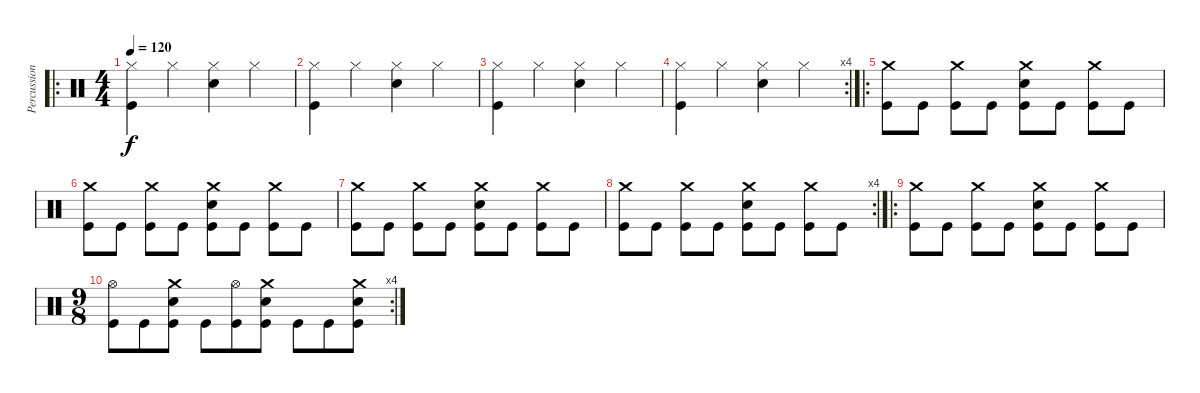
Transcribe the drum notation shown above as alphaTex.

\track ("Percussion" "Percussion") {instrument percussion}
\staff {score}
\articulation defaults
\ro
\ts (4 4)
\tempo 120
\clef neutral
\ks c
("Hi-Hat (closed)" "Kick (hit)").4{dy f} "Hi-Hat (closed)".4 ("Hi-Hat (closed)" "Snare (hit) 2").4 "Hi-Hat (closed)".4 |
("Hi-Hat (closed)" "Kick (hit)").4 "Hi-Hat (closed)".4 ("Hi-Hat (closed)" "Snare (hit) 2").4 "Hi-Hat (closed)".4 |
("Hi-Hat (closed)" "Kick (hit)").4 "Hi-Hat (closed)".4 ("Hi-Hat (closed)" "Snare (hit) 2").4 "Hi-Hat (closed)".4 |
\rc 4
("Hi-Hat (closed)" "Kick (hit)").4 "Hi-Hat (closed)".4 ("Hi-Hat (closed)" "Snare (hit) 2").4 "Hi-Hat (closed)".4 |
\ro
("Crash medium (hit)" "Kick (hit)").8 "Kick (hit)".8 ("Crash medium (hit)" "Kick (hit)").8 "Kick (hit)".8 ("Crash medium (hit)" "Snare (hit) 2" "Kick (hit)").8 "Kick (hit)".8 ("Crash medium (hit)" "Kick (hit)").8 "Kick (hit)".8 |
("Crash medium (hit)" "Kick (hit)").8 "Kick (hit)".8 ("Crash medium (hit)" "Kick (hit)").8 "Kick (hit)".8 ("Crash medium (hit)" "Snare (hit) 2" "Kick (hit)").8 "Kick (hit)".8 ("Crash medium (hit)" "Kick (hit)").8 "Kick (hit)".8 |
("Crash medium (hit)" "Kick (hit)").8 "Kick (hit)".8 ("Crash medium (hit)" "Kick (hit)").8 "Kick (hit)".8 ("Crash medium (hit)" "Snare (hit) 2" "Kick (hit)").8 "Kick (hit)".8 ("Crash medium (hit)" "Kick (hit)").8 "Kick (hit)".8 |
\rc 4
("Crash medium (hit)" "Kick (hit)").8 "Kick (hit)".8 ("Crash medium (hit)" "Kick (hit)").8 "Kick (hit)".8 ("Crash medium (hit)" "Snare (hit) 2" "Kick (hit)").8 "Kick (hit)".8 ("Crash medium (hit)" "Kick (hit)").8 "Kick (hit)".8 |
\ro
("Crash medium (hit)" "Kick (hit)").8 "Kick (hit)".8 ("Crash medium (hit)" "Kick (hit)").8 "Kick (hit)".8 ("Crash medium (hit)" "Snare (hit) 2" "Kick (hit)").8 "Kick (hit)".8 ("Crash medium (hit)" "Kick (hit)").8 "Kick (hit)".8 |
\rc 4
\ts (9 8)
("Hi-Hat (open)" "Kick (hit)").8 "Kick (hit)".8 ("Crash medium (hit)" "Snare (hit) 2" "Kick (hit)").8 "Kick (hit)".8 ("Hi-Hat (open)" "Kick (hit)").8 ("Crash medium (hit)" "Snare (hit) 2" "Kick (hit)").8 "Kick (hit)".8 "Kick (hit)".8 ("Crash medium (hit)" "Snare (hit) 2" "Kick (hit)").8
